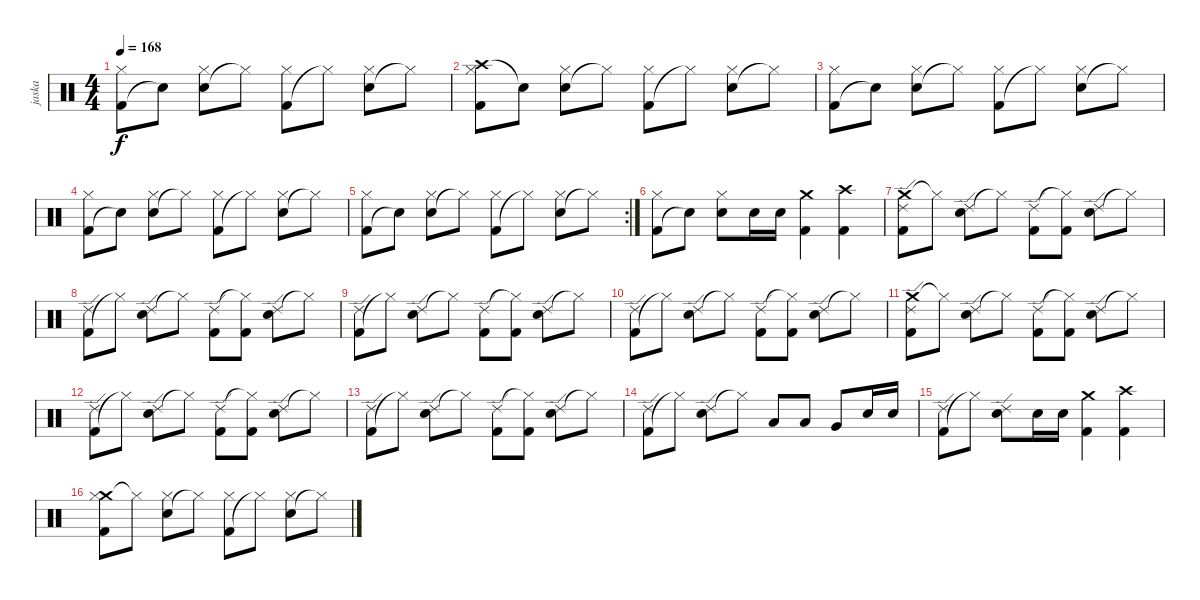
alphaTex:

\track ("jaska" "jaska") {instrument percussion}
\staff
\articulation defaults
\ts (4 4)
\tempo 168
\clef neutral
\ks c
("Kick (hit) 2" "Hi-Hat (closed)").8{dy f} "Snare (hit)"{t}.8 ("Electric Snare (hit)" "Hi-Hat (closed)").8 "Hi-Hat (closed)"{t}.8 ("Kick (hit) 2" "Hi-Hat (closed)").8 "Hi-Hat (closed)"{t}.8 ("Electric Snare (hit)" "Hi-Hat (closed)").8 "Hi-Hat (closed)"{t}.8 |
("Crash high (hit)" "Kick (hit) 2" "Hi-Hat (closed)").8 "Snare (hit)"{t}.8 ("Electric Snare (hit)" "Hi-Hat (closed)").8 "Hi-Hat (closed)"{t}.8 ("Kick (hit) 2" "Hi-Hat (closed)").8 "Hi-Hat (closed)"{t}.8 ("Electric Snare (hit)" "Hi-Hat (closed)").8 "Hi-Hat (closed)"{t}.8 |
("Kick (hit) 2" "Hi-Hat (closed)").8 "Snare (hit)"{t}.8 ("Electric Snare (hit)" "Hi-Hat (closed)").8 "Hi-Hat (closed)"{t}.8 ("Kick (hit) 2" "Hi-Hat (closed)").8 "Hi-Hat (closed)"{t}.8 ("Electric Snare (hit)" "Hi-Hat (closed)").8 "Hi-Hat (closed)"{t}.8 |
("Kick (hit) 2" "Hi-Hat (closed)").8 "Snare (hit)"{t}.8 ("Electric Snare (hit)" "Hi-Hat (closed)").8 "Hi-Hat (closed)"{t}.8 ("Kick (hit) 2" "Hi-Hat (closed)").8 "Hi-Hat (closed)"{t}.8 ("Electric Snare (hit)" "Hi-Hat (closed)").8 "Hi-Hat (closed)"{t}.8 |
\rc 2
("Kick (hit) 2" "Hi-Hat (closed)").8 "Snare (hit)"{t}.8 ("Electric Snare (hit)" "Hi-Hat (closed)").8 "Hi-Hat (closed)"{t}.8 ("Kick (hit) 2" "Hi-Hat (closed)").8 "Hi-Hat (closed)"{t}.8 ("Electric Snare (hit)" "Hi-Hat (closed)").8 "Hi-Hat (closed)"{t}.8 |
("Kick (hit) 2" "Hi-Hat (closed)").8 "Snare (hit)"{t}.8 ("Electric Snare (hit)" "Hi-Hat (closed)").8 "Electric Snare (hit)".16 "Electric Snare (hit)".16 ("Crash medium (hit)" "Kick (hit) 2").4 ("Crash high (hit)" "Kick (hit) 2").4 |
("Crash medium (hit)" "Kick (hit) 2" "Ride (edge) 2").8 "Hi-Hat (closed)"{t}.8 ("Electric Snare (hit)" "Ride (edge) 2").8 "Hi-Hat (closed)"{t}.8 ("Kick (hit) 2" "Ride (edge) 2").8 ("Kick (hit) 2" "Hi-Hat (closed)"{t}).8 ("Electric Snare (hit)" "Ride (edge) 2").8 "Hi-Hat (closed)"{t}.8 |
("Kick (hit) 2" "Ride (edge) 2").8 "Hi-Hat (closed)"{t}.8 ("Electric Snare (hit)" "Ride (edge) 2").8 "Hi-Hat (closed)"{t}.8 ("Kick (hit) 2" "Ride (edge) 2").8 ("Kick (hit) 2" "Hi-Hat (closed)"{t}).8 ("Electric Snare (hit)" "Ride (edge) 2").8 "Hi-Hat (closed)"{t}.8 |
("Kick (hit) 2" "Ride (edge) 2").8 "Hi-Hat (closed)"{t}.8 ("Electric Snare (hit)" "Ride (edge) 2").8 "Hi-Hat (closed)"{t}.8 ("Kick (hit) 2" "Ride (edge) 2").8 ("Kick (hit) 2" "Hi-Hat (closed)"{t}).8 ("Electric Snare (hit)" "Ride (edge) 2").8 "Hi-Hat (closed)"{t}.8 |
("Kick (hit) 2" "Ride (edge) 2").8 "Hi-Hat (closed)"{t}.8 ("Electric Snare (hit)" "Ride (edge) 2").8 "Hi-Hat (closed)"{t}.8 ("Kick (hit) 2" "Ride (edge) 2").8 ("Kick (hit) 2" "Hi-Hat (closed)"{t}).8 ("Electric Snare (hit)" "Ride (edge) 2").8 "Hi-Hat (closed)"{t}.8 |
("Crash medium (hit)" "Kick (hit) 2" "Ride (edge) 2").8 "Hi-Hat (closed)"{t}.8 ("Electric Snare (hit)" "Ride (edge) 2").8 "Hi-Hat (closed)"{t}.8 ("Kick (hit) 2" "Ride (edge) 2").8 ("Kick (hit) 2" "Hi-Hat (closed)"{t}).8 ("Electric Snare (hit)" "Ride (edge) 2").8 "Hi-Hat (closed)"{t}.8 |
("Kick (hit) 2" "Ride (edge) 2").8 "Hi-Hat (closed)"{t}.8 ("Electric Snare (hit)" "Ride (edge) 2").8 "Hi-Hat (closed)"{t}.8 ("Kick (hit) 2" "Ride (edge) 2").8 ("Kick (hit) 2" "Hi-Hat (closed)"{t}).8 ("Electric Snare (hit)" "Ride (edge) 2").8 "Hi-Hat (closed)"{t}.8 |
("Kick (hit) 2" "Ride (edge) 2").8 "Hi-Hat (closed)"{t}.8 ("Electric Snare (hit)" "Ride (edge) 2").8 "Hi-Hat (closed)"{t}.8 ("Kick (hit) 2" "Ride (edge) 2").8 ("Kick (hit) 2" "Hi-Hat (closed)"{t}).8 ("Electric Snare (hit)" "Ride (edge) 2").8 "Hi-Hat (closed)"{t}.8 |
("Kick (hit) 2" "Ride (edge) 2").8 "Hi-Hat (closed)"{t}.8 ("Electric Snare (hit)" "Ride (edge) 2").8 "Hi-Hat (closed)"{t}.8 "Low Tom (hit)".8 "Low Tom (hit)".8 "Very Low Tom (hit)".8 "Electric Snare (hit)".16 "Electric Snare (hit)".16 |
("Kick (hit) 2" "Ride (edge) 2").8 "Hi-Hat (closed)"{t}.8 ("Electric Snare (hit)" "Ride (edge) 2").8 "Electric Snare (hit)".16 "Electric Snare (hit)".16 ("Crash medium (hit)" "Kick (hit) 2").4 ("Crash high (hit)" "Kick (hit) 2").4 |
("Crash medium (hit)" "Kick (hit) 2" "Hi-Hat (closed)").8 "Hi-Hat (closed)"{t}.8 ("Electric Snare (hit)" "Hi-Hat (closed)").8 "Hi-Hat (closed)"{t}.8 ("Kick (hit) 2" "Hi-Hat (closed)").8 "Hi-Hat (closed)"{t}.8 ("Electric Snare (hit)" "Hi-Hat (closed)").8 "Hi-Hat (closed)"{t}.8
